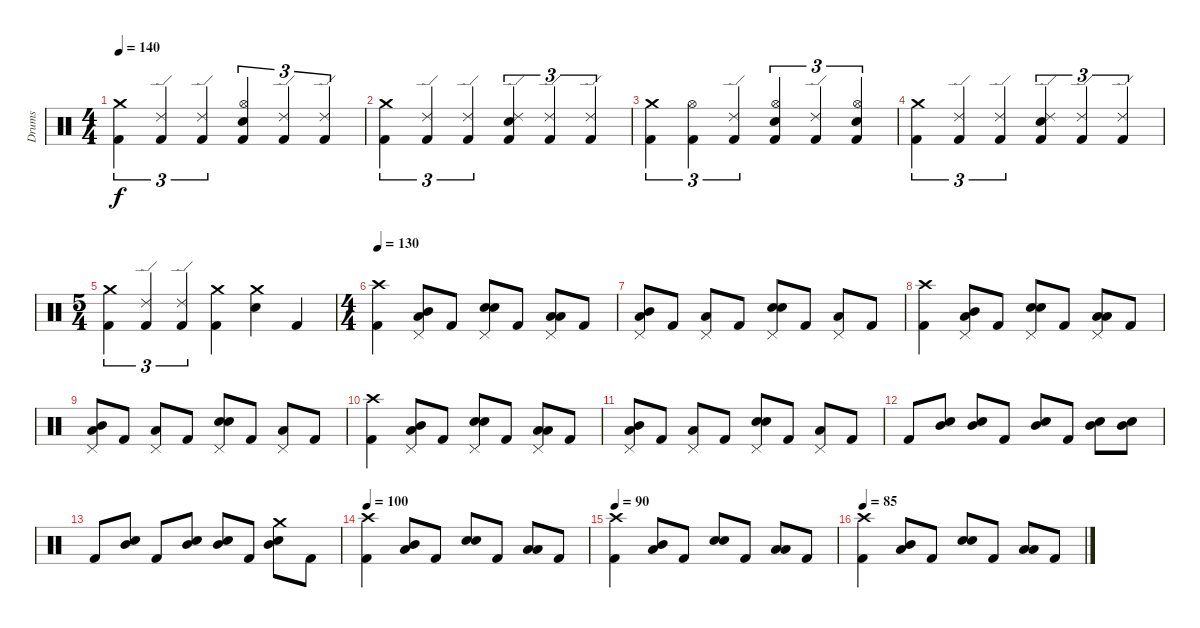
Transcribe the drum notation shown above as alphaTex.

\track ("Drums" "Drums") {instrument percussion}
\staff {score}
\articulation defaults
\ts (4 4)
\tempo 140
\clef neutral
\ks c
("Crash medium (hit)" "Kick (hit) 2").4{tu (3 2) dy f} ("Ride (edge) 2" "Kick (hit) 2").4{tu (3 2)} ("Ride (edge) 2" "Kick (hit) 2").4{tu (3 2)} ("Hi-Hat (open)" "Electric Snare (hit)" "Kick (hit) 2").4{tu (3 2)} ("Ride (edge) 2" "Kick (hit) 2").4{tu (3 2)} ("Ride (edge) 2" "Kick (hit) 2").4{tu (3 2)} |
("Crash medium (hit)" "Kick (hit) 2").4{tu (3 2)} ("Ride (edge) 2" "Kick (hit) 2").4{tu (3 2)} ("Ride (edge) 2" "Kick (hit) 2").4{tu (3 2)} ("Ride (edge) 2" "Electric Snare (hit)" "Kick (hit) 2").4{tu (3 2)} ("Ride (edge) 2" "Kick (hit) 2").4{tu (3 2)} ("Ride (edge) 2" "Kick (hit) 2").4{tu (3 2)} |
("Crash medium (hit)" "Kick (hit) 2").4{tu (3 2)} ("Hi-Hat (open)" "Kick (hit) 2").4{tu (3 2)} ("Ride (edge) 2" "Kick (hit) 2").4{tu (3 2)} ("Hi-Hat (open)" "Electric Snare (hit)" "Kick (hit) 2").4{tu (3 2)} ("Ride (edge) 2" "Kick (hit) 2").4{tu (3 2)} ("Hi-Hat (open)" "Electric Snare (hit)" "Kick (hit) 2").4{tu (3 2)} |
("Crash medium (hit)" "Kick (hit) 2").4{tu (3 2)} ("Ride (edge) 2" "Kick (hit) 2").4{tu (3 2)} ("Ride (edge) 2" "Kick (hit) 2").4{tu (3 2)} ("Ride (edge) 2" "Electric Snare (hit)" "Kick (hit) 2").4{tu (3 2)} ("Ride (edge) 2" "Kick (hit) 2").4{tu (3 2)} ("Ride (edge) 2" "Kick (hit) 2").4{tu (3 2)} |
\ts (5 4)
("Crash medium (hit)" "Kick (hit) 2").4{tu (3 2)} ("Ride (edge) 2" "Kick (hit) 2").4{tu (3 2)} ("Ride (edge) 2" "Kick (hit) 2").4{tu (3 2)} ("Crash medium (hit)" "Kick (hit) 2").4 ("Crash medium (hit)" "Electric Snare (hit)").4 "Kick (hit) 2".4 |
\ts (4 4)
\tempo 130
("Crash high (hit)" "Kick (hit) 2").4 ("Pedal Hi-Hat (hit)" "Mid Tom (hit)" "Low Tom (hit)").8{bu 60} "Kick (hit) 2".8 ("Pedal Hi-Hat (hit)" "Electric Snare (hit)" "Electric Snare (hit)").8{bu 60} "Kick (hit) 2".8 ("Pedal Hi-Hat (hit)" "Low Tom (hit)" "Low Floor Tom (hit)").8{bu 60} "Kick (hit) 2".8 |
("Pedal Hi-Hat (hit)" "Mid Tom (hit)" "Low Tom (hit)").8{bu 60} "Kick (hit) 2".8 ("Pedal Hi-Hat (hit)" "Low Floor Tom (hit)").8 "Kick (hit) 2".8 ("Pedal Hi-Hat (hit)" "Electric Snare (hit)" "Electric Snare (hit)").8{bu 60} "Kick (hit) 2".8 ("Pedal Hi-Hat (hit)" "Low Floor Tom (hit)").8 "Kick (hit) 2".8 |
("Crash high (hit)" "Kick (hit) 2").4 ("Pedal Hi-Hat (hit)" "Mid Tom (hit)" "Low Tom (hit)").8{bu 60} "Kick (hit) 2".8 ("Pedal Hi-Hat (hit)" "Electric Snare (hit)" "Electric Snare (hit)").8{bu 60} "Kick (hit) 2".8 ("Pedal Hi-Hat (hit)" "Low Tom (hit)" "Low Floor Tom (hit)").8{bu 60} "Kick (hit) 2".8 |
("Pedal Hi-Hat (hit)" "Mid Tom (hit)" "Low Tom (hit)").8{bu 60} "Kick (hit) 2".8 ("Pedal Hi-Hat (hit)" "Low Floor Tom (hit)").8 "Kick (hit) 2".8 ("Pedal Hi-Hat (hit)" "Electric Snare (hit)" "Electric Snare (hit)").8{bu 60} "Kick (hit) 2".8 ("Pedal Hi-Hat (hit)" "Low Floor Tom (hit)").8 "Kick (hit) 2".8 |
("Crash high (hit)" "Kick (hit) 2").4 ("Pedal Hi-Hat (hit)" "Mid Tom (hit)" "Low Tom (hit)").8{bu 60} "Kick (hit) 2".8 ("Pedal Hi-Hat (hit)" "Electric Snare (hit)" "Electric Snare (hit)").8{bu 60} "Kick (hit) 2".8 ("Pedal Hi-Hat (hit)" "Low Tom (hit)" "Low Floor Tom (hit)").8{bu 60} "Kick (hit) 2".8 |
("Pedal Hi-Hat (hit)" "Mid Tom (hit)" "Low Tom (hit)").8{bu 60} "Kick (hit) 2".8 ("Pedal Hi-Hat (hit)" "Low Floor Tom (hit)").8 "Kick (hit) 2".8 ("Pedal Hi-Hat (hit)" "Electric Snare (hit)" "Electric Snare (hit)").8{bu 60} "Kick (hit) 2".8 ("Pedal Hi-Hat (hit)" "Low Floor Tom (hit)").8 "Kick (hit) 2".8 |
"Kick (hit) 2".8 ("Electric Snare (hit)" "Mid Tom (hit)").8 ("Electric Snare (hit)" "Mid Tom (hit)").8 "Kick (hit) 2".8 ("Electric Snare (hit)" "Mid Tom (hit)").8 "Kick (hit) 2".8 ("Electric Snare (hit)" "Mid Tom (hit)").8 ("Electric Snare (hit)" "Mid Tom (hit)").8 |
"Kick (hit) 2".8 ("Electric Snare (hit)" "Mid Tom (hit)").8 "Kick (hit) 2".8 ("Electric Snare (hit)" "Mid Tom (hit)").8 ("Electric Snare (hit)" "Mid Tom (hit)").8 "Kick (hit) 2".8 ("Crash medium (hit)" "Electric Snare (hit)" "Mid Tom (hit)").8 "Kick (hit) 2".8 |
\tempo 100
("Crash high (hit)" "Kick (hit) 2").4 ("Mid Tom (hit)" "Low Tom (hit)").8{bu 60} "Kick (hit) 2".8 ("Electric Snare (hit)" "Electric Snare (hit)").8{bu 60} "Kick (hit) 2".8 ("Low Tom (hit)" "Low Floor Tom (hit)").8{bu 60} "Kick (hit) 2".8 |
\tempo 90
("Crash high (hit)" "Kick (hit) 2").4 ("Mid Tom (hit)" "Low Tom (hit)").8{bu 60} "Kick (hit) 2".8 ("Electric Snare (hit)" "Electric Snare (hit)").8{bu 60} "Kick (hit) 2".8 ("Low Tom (hit)" "Low Floor Tom (hit)").8{bu 60} "Kick (hit) 2".8 |
\tempo 85
("Crash high (hit)" "Kick (hit) 2").4 ("Mid Tom (hit)" "Low Tom (hit)").8{bu 60} "Kick (hit) 2".8 ("Electric Snare (hit)" "Electric Snare (hit)").8{bu 60} "Kick (hit) 2".8 ("Low Tom (hit)" "Low Floor Tom (hit)").8{bu 60} "Kick (hit) 2".8
